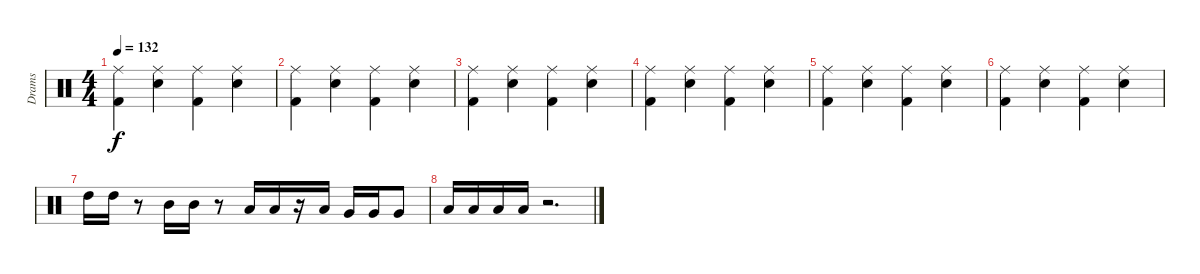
\track ("Drams" "Drams") {instrument percussion}
\staff {score}
\articulation defaults
\ts (4 4)
\tempo 132
\clef neutral
\ks c
("Ride (middle)" "Kick (hit) 2").4{dy f} ("Ride (middle)" "Snare (hit) 2").4 ("Ride (middle)" "Kick (hit) 2").4 ("Ride (middle)" "Snare (hit) 2").4 |
("Ride (middle)" "Kick (hit) 2").4 ("Ride (middle)" "Snare (hit) 2").4 ("Ride (middle)" "Kick (hit) 2").4 ("Ride (middle)" "Snare (hit) 2").4 |
("Ride (middle)" "Kick (hit) 2").4 ("Ride (middle)" "Snare (hit) 2").4 ("Ride (middle)" "Kick (hit) 2").4 ("Ride (middle)" "Snare (hit) 2").4 |
("Ride (middle)" "Kick (hit) 2").4 ("Ride (middle)" "Snare (hit) 2").4 ("Ride (middle)" "Kick (hit) 2").4 ("Ride (middle)" "Snare (hit) 2").4 |
("Ride (middle)" "Kick (hit) 2").4 ("Ride (middle)" "Snare (hit) 2").4 ("Ride (middle)" "Kick (hit) 2").4 ("Ride (middle)" "Snare (hit) 2").4 |
("Ride (middle)" "Kick (hit) 2").4 ("Ride (middle)" "Snare (hit) 2").4 ("Ride (middle)" "Kick (hit) 2").4 ("Ride (middle)" "Snare (hit) 2").4 |
"High Tom (hit)".16 "High Tom (hit)".16 r.8 "Mid Tom (hit)".16 "Mid Tom (hit)".16 r.8 "Low Tom (hit)".16 "Low Tom (hit)".16 r.16 "Low Tom (hit)".16 "Very Low Tom (hit)".16 "Very Low Tom (hit)".16 "Very Low Tom (hit)".8 |
"Low Floor Tom (hit)".16 "Low Floor Tom (hit)".16 "Low Floor Tom (hit)".16 "Low Floor Tom (hit)".16 r.2{d}
